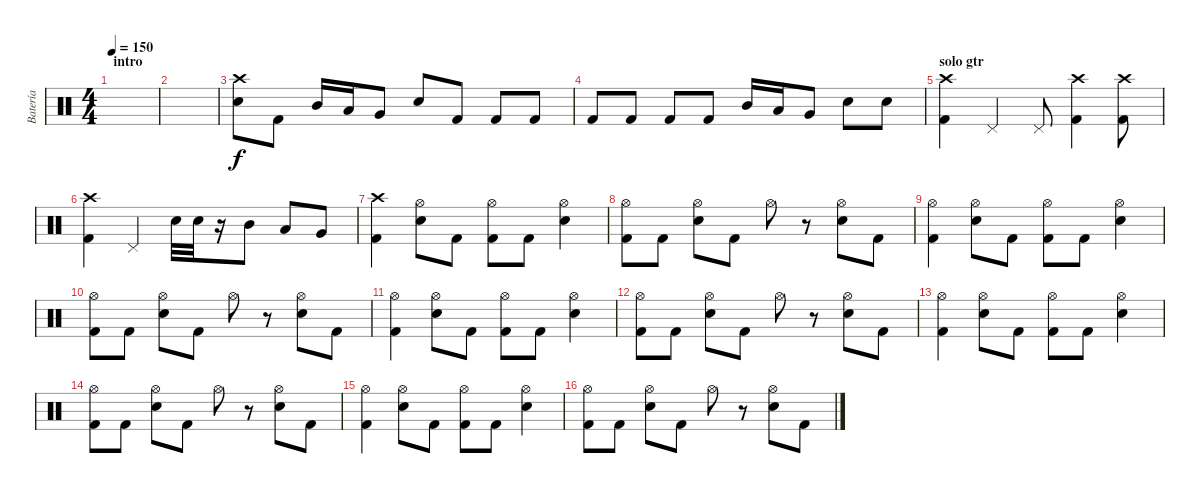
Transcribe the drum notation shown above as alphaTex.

\track ("Batería" "Batería") {instrument percussion}
\staff {score}
\articulation defaults
\ts (4 4)
\section ("" "intro")
\tempo 150
\clef neutral
\ks c
|
|
("Electric Snare (hit)" "Crash high (hit)").8 "Kick (hit) 2".8 "Mid Tom (hit)".16 "Low Tom (hit)".16 "Very Low Tom (hit)".8 "Electric Snare (hit)".8 "Kick (hit) 2".8 "Kick (hit) 2".8 "Kick (hit) 2".8 |
"Kick (hit) 2".8 "Kick (hit) 2".8 "Kick (hit) 2".8 "Kick (hit) 2".8 "Mid Tom (hit)".16 "Low Tom (hit)".16 "Very Low Tom (hit)".8 "Electric Snare (hit)".8 "Electric Snare (hit)".8 |
\section ("" "solo gtr")
("Crash high (hit)" "Kick (hit) 2").4 "Pedal Hi-Hat (hit)".4 "Pedal Hi-Hat (hit)".8 ("Crash high (hit)" "Kick (hit) 2").4 ("Crash high (hit)" "Kick (hit) 2").8 |
("Crash high (hit)" "Kick (hit) 2").4 "Pedal Hi-Hat (hit)".4 "Electric Snare (hit)".32 "Electric Snare (hit)".32 r.16 "Mid Tom (hit)".8 "Low Tom (hit)".8 "Very Low Tom (hit)".8 |
("Crash high (hit)" "Kick (hit) 2").4 ("Hi-Hat (open)" "Electric Snare (hit)").8 "Kick (hit) 2".8 ("Hi-Hat (open)" "Kick (hit) 2").8 "Kick (hit) 2".8 ("Hi-Hat (open)" "Electric Snare (hit)").4 |
("Hi-Hat (open)" "Kick (hit) 2").8 "Kick (hit) 2".8 ("Hi-Hat (open)" "Electric Snare (hit)").8 "Kick (hit) 2".8 "Hi-Hat (open)".8 r.8 ("Hi-Hat (open)" "Electric Snare (hit)").8 "Kick (hit) 2".8 |
("Hi-Hat (open)" "Kick (hit) 2").4 ("Hi-Hat (open)" "Electric Snare (hit)").8 "Kick (hit) 2".8 ("Hi-Hat (open)" "Kick (hit) 2").8 "Kick (hit) 2".8 ("Hi-Hat (open)" "Electric Snare (hit)").4 |
("Hi-Hat (open)" "Kick (hit) 2").8 "Kick (hit) 2".8 ("Hi-Hat (open)" "Electric Snare (hit)").8 "Kick (hit) 2".8 "Hi-Hat (open)".8 r.8 ("Hi-Hat (open)" "Electric Snare (hit)").8 "Kick (hit) 2".8 |
("Hi-Hat (open)" "Kick (hit) 2").4 ("Hi-Hat (open)" "Electric Snare (hit)").8 "Kick (hit) 2".8 ("Hi-Hat (open)" "Kick (hit) 2").8 "Kick (hit) 2".8 ("Hi-Hat (open)" "Electric Snare (hit)").4 |
("Hi-Hat (open)" "Kick (hit) 2").8 "Kick (hit) 2".8 ("Hi-Hat (open)" "Electric Snare (hit)").8 "Kick (hit) 2".8 "Hi-Hat (open)".8 r.8 ("Hi-Hat (open)" "Electric Snare (hit)").8 "Kick (hit) 2".8 |
("Hi-Hat (open)" "Kick (hit) 2").4 ("Hi-Hat (open)" "Electric Snare (hit)").8 "Kick (hit) 2".8 ("Hi-Hat (open)" "Kick (hit) 2").8 "Kick (hit) 2".8 ("Hi-Hat (open)" "Electric Snare (hit)").4 |
("Hi-Hat (open)" "Kick (hit) 2").8 "Kick (hit) 2".8 ("Hi-Hat (open)" "Electric Snare (hit)").8 "Kick (hit) 2".8 "Hi-Hat (open)".8 r.8 ("Hi-Hat (open)" "Electric Snare (hit)").8 "Kick (hit) 2".8 |
("Hi-Hat (open)" "Kick (hit) 2").4 ("Hi-Hat (open)" "Electric Snare (hit)").8 "Kick (hit) 2".8 ("Hi-Hat (open)" "Kick (hit) 2").8 "Kick (hit) 2".8 ("Hi-Hat (open)" "Electric Snare (hit)").4 |
("Hi-Hat (open)" "Kick (hit) 2").8 "Kick (hit) 2".8 ("Hi-Hat (open)" "Electric Snare (hit)").8 "Kick (hit) 2".8 "Hi-Hat (open)".8 r.8 ("Hi-Hat (open)" "Electric Snare (hit)").8 "Kick (hit) 2".8
